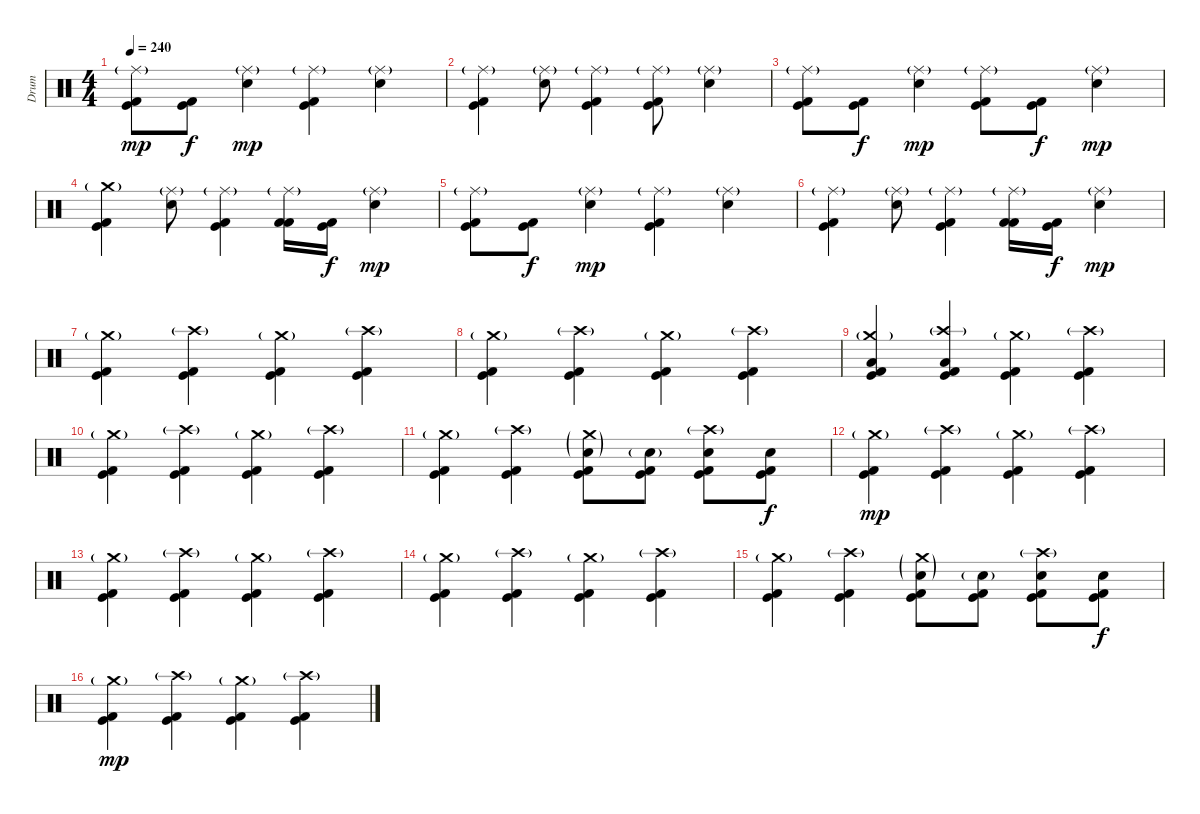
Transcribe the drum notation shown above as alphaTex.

\track ("Drum" "Drum") {instrument percussion}
\staff {score}
\articulation defaults
\ts (4 4)
\tempo 240
\clef neutral
\ks c
("Ride (middle)"{g} "Kick (hit)" "Kick (hit) 2").8{dy mp} ("Kick (hit)" "Kick (hit) 2").8{dy f} ("Ride (middle)"{g} "Electric Snare (hit)").4{dy mp} ("Ride (middle)"{g} "Kick (hit)" "Kick (hit) 2").4 ("Ride (middle)"{g} "Electric Snare (hit)").4 |
("Ride (middle)"{g} "Kick (hit)" "Kick (hit) 2").4 ("Ride (middle)"{g} "Electric Snare (hit)").8 ("Ride (middle)"{g} "Kick (hit)" "Kick (hit) 2").4 ("Ride (middle)"{g} "Kick (hit)" "Kick (hit) 2").8 ("Ride (middle)"{g} "Electric Snare (hit)").4 |
("Ride (middle)"{g} "Kick (hit)" "Kick (hit) 2").8 ("Kick (hit)" "Kick (hit) 2").8{dy f} ("Ride (middle)"{g} "Electric Snare (hit)").4{dy mp} ("Ride (middle)"{g} "Kick (hit)" "Kick (hit) 2").8 ("Kick (hit)" "Kick (hit) 2").8{dy f} ("Ride (middle)"{g} "Electric Snare (hit)").4{dy mp} |
("Crash medium (hit)"{g} "Kick (hit)" "Kick (hit) 2").4 ("Ride (middle)"{g} "Electric Snare (hit)").8 ("Ride (middle)"{g} "Kick (hit)" "Kick (hit) 2").4 ("Ride (middle)"{g} "Kick (hit) 2" "Kick (hit) 2").16 ("Kick (hit)" "Kick (hit) 2").16{dy f} ("Ride (middle)"{g} "Electric Snare (hit)").4{dy mp} |
("Ride (middle)"{g} "Kick (hit)" "Kick (hit) 2").8 ("Kick (hit)" "Kick (hit) 2").8{dy f} ("Ride (middle)"{g} "Electric Snare (hit)").4{dy mp} ("Ride (middle)"{g} "Kick (hit)" "Kick (hit) 2").4 ("Ride (middle)"{g} "Electric Snare (hit)").4 |
("Ride (middle)"{g} "Kick (hit)" "Kick (hit) 2").4 ("Ride (middle)"{g} "Electric Snare (hit)").8 ("Ride (middle)"{g} "Kick (hit)" "Kick (hit) 2").4 ("Ride (middle)"{g} "Kick (hit) 2" "Kick (hit) 2").16 ("Kick (hit)" "Kick (hit) 2").16{dy f} ("Ride (middle)"{g} "Electric Snare (hit)").4{dy mp} |
("Crash medium (hit)"{g} "Kick (hit)" "Kick (hit) 2").4 ("Crash high (hit)"{g} "Kick (hit)" "Kick (hit) 2").4 ("Crash medium (hit)"{g} "Kick (hit)" "Kick (hit) 2").4 ("Crash high (hit)"{g} "Kick (hit)" "Kick (hit) 2").4 |
("Crash medium (hit)"{g} "Kick (hit)" "Kick (hit) 2").4 ("Crash high (hit)"{g} "Kick (hit)" "Kick (hit) 2").4 ("Crash medium (hit)"{g} "Kick (hit)" "Kick (hit) 2").4 ("Crash high (hit)"{g} "Kick (hit)" "Kick (hit) 2").4 |
("Crash medium (hit)"{g} "Low Tom (hit)" "Kick (hit)" "Kick (hit) 2").4 ("Crash high (hit)"{g} "Low Tom (hit)" "Kick (hit)" "Kick (hit) 2").4 ("Crash medium (hit)"{g} "Kick (hit)" "Kick (hit) 2").4 ("Crash high (hit)"{g} "Kick (hit)" "Kick (hit) 2").4 |
("Crash medium (hit)"{g} "Kick (hit)" "Kick (hit) 2").4 ("Crash high (hit)"{g} "Kick (hit)" "Kick (hit) 2").4 ("Crash medium (hit)"{g} "Kick (hit)" "Kick (hit) 2").4 ("Crash high (hit)"{g} "Kick (hit)" "Kick (hit) 2").4 |
("Crash medium (hit)"{g} "Kick (hit)" "Kick (hit) 2").4 ("Crash high (hit)"{g} "Kick (hit)" "Kick (hit) 2").4 ("Crash medium (hit)"{g} "Electric Snare (hit)"{g} "Kick (hit)" "Kick (hit) 2").8 ("Electric Snare (hit)"{g} "Kick (hit)" "Kick (hit) 2").8 ("Crash high (hit)"{g} "Electric Snare (hit)" "Kick (hit)" "Kick (hit) 2").8 ("Electric Snare (hit)" "Kick (hit)" "Kick (hit) 2").8{dy f} |
("Crash medium (hit)"{g} "Kick (hit)" "Kick (hit) 2").4{dy mp} ("Crash high (hit)"{g} "Kick (hit)" "Kick (hit) 2").4 ("Crash medium (hit)"{g} "Kick (hit)" "Kick (hit) 2").4 ("Crash high (hit)"{g} "Kick (hit)" "Kick (hit) 2").4 |
("Crash medium (hit)"{g} "Kick (hit)" "Kick (hit) 2").4 ("Crash high (hit)"{g} "Kick (hit)" "Kick (hit) 2").4 ("Crash medium (hit)"{g} "Kick (hit)" "Kick (hit) 2").4 ("Crash high (hit)"{g} "Kick (hit)" "Kick (hit) 2").4 |
("Crash medium (hit)"{g} "Kick (hit)" "Kick (hit) 2").4 ("Crash high (hit)"{g} "Kick (hit)" "Kick (hit) 2").4 ("Crash medium (hit)"{g} "Kick (hit)" "Kick (hit) 2").4 ("Crash high (hit)"{g} "Kick (hit)" "Kick (hit) 2").4 |
("Crash medium (hit)"{g} "Kick (hit)" "Kick (hit) 2").4 ("Crash high (hit)"{g} "Kick (hit)" "Kick (hit) 2").4 ("Crash medium (hit)"{g} "Electric Snare (hit)"{g} "Kick (hit)" "Kick (hit) 2").8 ("Electric Snare (hit)"{g} "Kick (hit)" "Kick (hit) 2").8 ("Crash high (hit)"{g} "Electric Snare (hit)" "Kick (hit)" "Kick (hit) 2").8 ("Electric Snare (hit)" "Kick (hit)" "Kick (hit) 2").8{dy f} |
("Crash medium (hit)"{g} "Kick (hit)" "Kick (hit) 2").4{dy mp} ("Crash high (hit)"{g} "Kick (hit)" "Kick (hit) 2").4 ("Crash medium (hit)"{g} "Kick (hit)" "Kick (hit) 2").4 ("Crash high (hit)"{g} "Kick (hit)" "Kick (hit) 2").4
